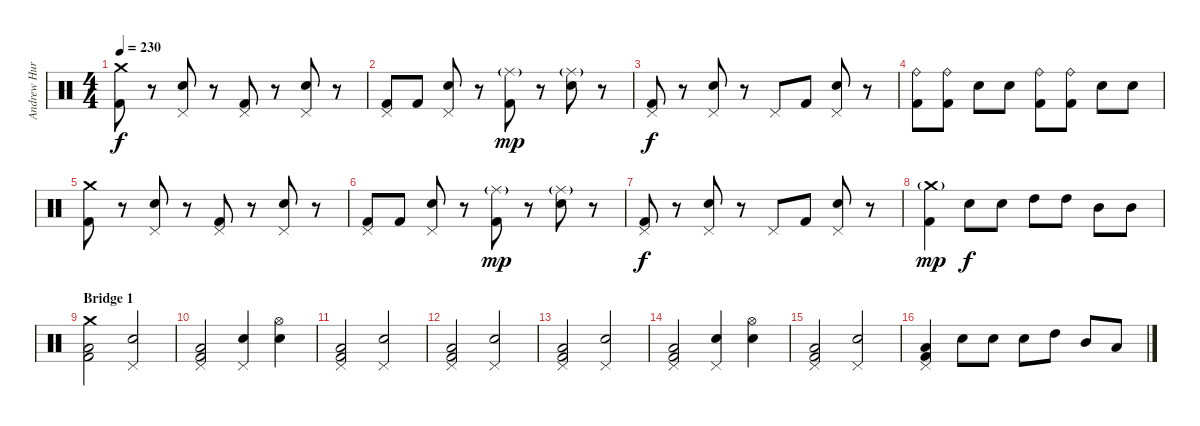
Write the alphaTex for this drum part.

\track ("Andrew Hurley (Drums)" "Andrew Hur") {instrument percussion}
\staff {score}
\articulation defaults
\ts (4 4)
\tempo 230
\clef neutral
\ks c
("Crash medium (hit)" "Kick (hit) 2").8{dy f} r.8 ("Pedal Hi-Hat (hit)" "Electric Snare (hit)").8 r.8 ("Pedal Hi-Hat (hit)" "Kick (hit) 2").8 r.8 ("Pedal Hi-Hat (hit)" "Electric Snare (hit)").8 r.8 |
("Pedal Hi-Hat (hit)" "Kick (hit) 2").8 "Kick (hit) 2".8 ("Pedal Hi-Hat (hit)" "Electric Snare (hit)").8 r.8 ("Ride (middle)"{g} "Kick (hit) 2").8{dy mp} r.8 ("Ride (middle)"{g} "Electric Snare (hit)").8 r.8 |
("Pedal Hi-Hat (hit)" "Kick (hit) 2").8{dy f} r.8 ("Pedal Hi-Hat (hit)" "Electric Snare (hit)").8 r.8 "Pedal Hi-Hat (hit)".8 "Kick (hit) 2".8 ("Pedal Hi-Hat (hit)" "Electric Snare (hit)").8 r.8 |
("Ride (bell)" "Kick (hit) 2").8 ("Ride (bell)" "Kick (hit) 2").8 "Electric Snare (hit)".8 "Electric Snare (hit)".8 ("Ride (bell)" "Kick (hit) 2").8 ("Ride (bell)" "Kick (hit) 2").8 "Electric Snare (hit)".8 "Electric Snare (hit)".8 |
("Crash medium (hit)" "Kick (hit) 2").8 r.8 ("Pedal Hi-Hat (hit)" "Electric Snare (hit)").8 r.8 ("Pedal Hi-Hat (hit)" "Kick (hit) 2").8 r.8 ("Pedal Hi-Hat (hit)" "Electric Snare (hit)").8 r.8 |
("Pedal Hi-Hat (hit)" "Kick (hit) 2").8 "Kick (hit) 2".8 ("Pedal Hi-Hat (hit)" "Electric Snare (hit)").8 r.8 ("Ride (middle)"{g} "Kick (hit) 2").8{dy mp} r.8 ("Ride (middle)"{g} "Electric Snare (hit)").8 r.8 |
("Pedal Hi-Hat (hit)" "Kick (hit) 2").8{dy f} r.8 ("Pedal Hi-Hat (hit)" "Electric Snare (hit)").8 r.8 "Pedal Hi-Hat (hit)".8 "Kick (hit) 2".8 ("Pedal Hi-Hat (hit)" "Electric Snare (hit)").8 r.8 |
("Crash medium (hit)"{g} "Kick (hit) 2").4{dy mp} "Electric Snare (hit)".8{dy f} "Electric Snare (hit)".8 "High Tom (hit)".8 "High Tom (hit)".8 "Mid Tom (hit)".8 "Mid Tom (hit)".8 |
\section ("" "Bridge 1")
("Crash medium (hit)" "Low Floor Tom (hit)" "Kick (hit) 2").2 ("Pedal Hi-Hat (hit)" "Electric Snare (hit)").2 |
("Pedal Hi-Hat (hit)" "Low Floor Tom (hit)" "Kick (hit) 2").2 ("Pedal Hi-Hat (hit)" "Electric Snare (hit)").4 ("Hi-Hat (open)" "Electric Snare (hit)").4 |
("Pedal Hi-Hat (hit)" "Low Floor Tom (hit)" "Kick (hit) 2").2 ("Pedal Hi-Hat (hit)" "Electric Snare (hit)").2 |
("Pedal Hi-Hat (hit)" "Low Floor Tom (hit)" "Kick (hit) 2").2 ("Pedal Hi-Hat (hit)" "Electric Snare (hit)").2 |
("Pedal Hi-Hat (hit)" "Low Floor Tom (hit)" "Kick (hit) 2").2 ("Pedal Hi-Hat (hit)" "Electric Snare (hit)").2 |
("Pedal Hi-Hat (hit)" "Low Floor Tom (hit)" "Kick (hit) 2").2 ("Pedal Hi-Hat (hit)" "Electric Snare (hit)").4 ("Hi-Hat (open)" "Electric Snare (hit)").4 |
("Pedal Hi-Hat (hit)" "Low Floor Tom (hit)" "Kick (hit) 2").2 ("Pedal Hi-Hat (hit)" "Electric Snare (hit)").2 |
("Pedal Hi-Hat (hit)" "Low Floor Tom (hit)" "Kick (hit) 2").4 "Electric Snare (hit)".8 "Electric Snare (hit)".8 "Electric Snare (hit)".8 "High Tom (hit)".8 "Mid Tom (hit)".8 "Low Tom (hit)".8
